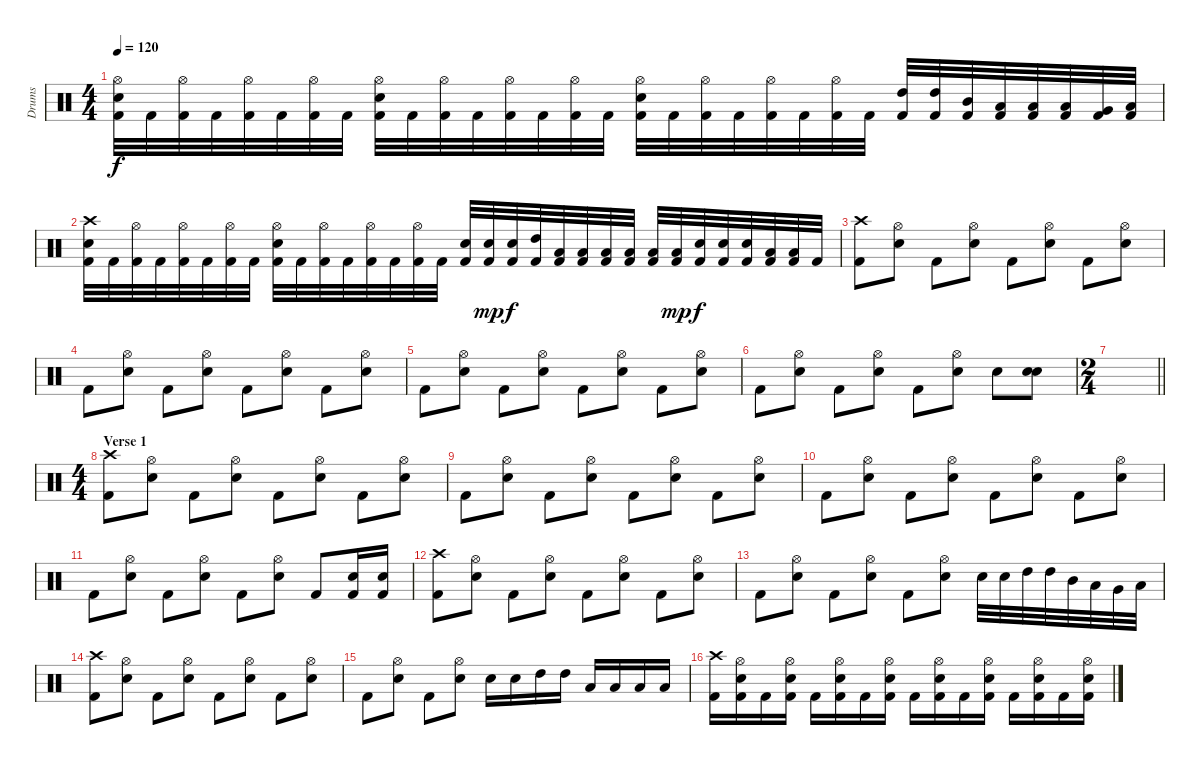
\track ("Drums" "Drums") {instrument percussion}
\staff {score}
\articulation defaults
\ts (4 4)
\tempo 120
\clef neutral
\ks c
("Hi-Hat (open)" "Electric Snare (hit)" "Kick (hit) 2").32{dy f} "Kick (hit) 2".32 ("Hi-Hat (open)" "Kick (hit) 2").32 "Kick (hit) 2".32 ("Hi-Hat (open)" "Kick (hit) 2").32 "Kick (hit) 2".32 ("Hi-Hat (open)" "Kick (hit) 2").32 "Kick (hit) 2".32 ("Hi-Hat (open)" "Electric Snare (hit)" "Kick (hit) 2").32 "Kick (hit) 2".32 ("Hi-Hat (open)" "Kick (hit) 2").32 "Kick (hit) 2".32 ("Hi-Hat (open)" "Kick (hit) 2").32 "Kick (hit) 2".32 ("Hi-Hat (open)" "Kick (hit) 2").32 "Kick (hit) 2".32 ("Hi-Hat (open)" "Electric Snare (hit)" "Kick (hit) 2").32 "Kick (hit) 2".32 ("Hi-Hat (open)" "Kick (hit) 2").32 "Kick (hit) 2".32 ("Hi-Hat (open)" "Kick (hit) 2").32 "Kick (hit) 2".32 ("Hi-Hat (open)" "Kick (hit) 2").32 "Kick (hit) 2".32 ("High Tom (hit)" "Kick (hit) 2").32 ("High Tom (hit)" "Kick (hit) 2").32 ("Mid Tom (hit)" "Kick (hit) 2").32 ("Low Tom (hit)" "Kick (hit) 2").32 ("Low Tom (hit)" "Kick (hit) 2").32 ("Low Tom (hit)" "Kick (hit) 2").32 ("Very Low Tom (hit)" "Kick (hit) 2").32 ("Low Floor Tom (hit)" "Kick (hit) 2").32 |
("Crash high (hit)" "Electric Snare (hit)" "Kick (hit) 2").32 "Kick (hit) 2".32 ("Hi-Hat (open)" "Kick (hit) 2").32 "Kick (hit) 2".32 ("Hi-Hat (open)" "Kick (hit) 2").32 "Kick (hit) 2".32 ("Hi-Hat (open)" "Kick (hit) 2").32 "Kick (hit) 2".32 ("Hi-Hat (open)" "Electric Snare (hit)" "Kick (hit) 2").32 "Kick (hit) 2".32 ("Hi-Hat (open)" "Kick (hit) 2").32 "Kick (hit) 2".32 ("Hi-Hat (open)" "Kick (hit) 2").32 "Kick (hit) 2".32 ("Hi-Hat (open)" "Kick (hit) 2").32 "Kick (hit) 2".32 ("Electric Snare (hit)" "Kick (hit) 2").32 ("Electric Snare (hit)" "Kick (hit) 2").32{dy mp} ("Electric Snare (hit)" "Kick (hit) 2").32{dy f} ("High Tom (hit)" "Kick (hit) 2").32 ("Low Tom (hit)" "Kick (hit) 2").32 ("Low Tom (hit)" "Kick (hit) 2").32 ("Low Floor Tom (hit)" "Kick (hit) 2").32 ("Low Floor Tom (hit)" "Kick (hit) 2").32 ("Low Tom (hit)" "Kick (hit) 2").32 ("Low Tom (hit)" "Kick (hit) 2").32{dy mp} ("Electric Snare (hit)" "Kick (hit) 2").32{dy f} ("Electric Snare (hit)" "Kick (hit) 2").32 ("Electric Snare (hit)" "Kick (hit) 2").32 ("Low Floor Tom (hit)" "Kick (hit) 2").32 ("Low Floor Tom (hit)" "Kick (hit) 2").32 "Kick (hit) 2".32 |
("Crash high (hit)" "Kick (hit) 2").8 ("Hi-Hat (open)" "Electric Snare (hit)").8 "Kick (hit) 2".8 ("Hi-Hat (open)" "Electric Snare (hit)").8 "Kick (hit) 2".8 ("Hi-Hat (open)" "Electric Snare (hit)").8 "Kick (hit) 2".8 ("Hi-Hat (open)" "Electric Snare (hit)").8 |
"Kick (hit) 2".8 ("Hi-Hat (open)" "Electric Snare (hit)").8 "Kick (hit) 2".8 ("Hi-Hat (open)" "Electric Snare (hit)").8 "Kick (hit) 2".8 ("Hi-Hat (open)" "Electric Snare (hit)").8 "Kick (hit) 2".8 ("Hi-Hat (open)" "Electric Snare (hit)").8 |
"Kick (hit) 2".8 ("Hi-Hat (open)" "Electric Snare (hit)").8 "Kick (hit) 2".8 ("Hi-Hat (open)" "Electric Snare (hit)").8 "Kick (hit) 2".8 ("Hi-Hat (open)" "Electric Snare (hit)").8 "Kick (hit) 2".8 ("Hi-Hat (open)" "Electric Snare (hit)").8 |
"Kick (hit) 2".8 ("Hi-Hat (open)" "Electric Snare (hit)").8 "Kick (hit) 2".8 ("Hi-Hat (open)" "Electric Snare (hit)").8 "Kick (hit) 2".8 ("Hi-Hat (open)" "Electric Snare (hit)").8 "Electric Snare (hit)".8 ("Electric Snare (hit)" "Electric Snare (hit)").8 |
\ts (2 4)
\barLineRight lightlight
|
\ts (4 4)
\section ("" "Verse 1")
("Crash high (hit)" "Kick (hit) 2").8 ("Hi-Hat (open)" "Electric Snare (hit)").8 "Kick (hit) 2".8 ("Hi-Hat (open)" "Electric Snare (hit)").8 "Kick (hit) 2".8 ("Hi-Hat (open)" "Electric Snare (hit)").8 "Kick (hit) 2".8 ("Hi-Hat (open)" "Electric Snare (hit)").8 |
"Kick (hit) 2".8 ("Hi-Hat (open)" "Electric Snare (hit)").8 "Kick (hit) 2".8 ("Hi-Hat (open)" "Electric Snare (hit)").8 "Kick (hit) 2".8 ("Hi-Hat (open)" "Electric Snare (hit)").8 "Kick (hit) 2".8 ("Hi-Hat (open)" "Electric Snare (hit)").8 |
"Kick (hit) 2".8 ("Hi-Hat (open)" "Electric Snare (hit)").8 "Kick (hit) 2".8 ("Hi-Hat (open)" "Electric Snare (hit)").8 "Kick (hit) 2".8 ("Hi-Hat (open)" "Electric Snare (hit)").8 "Kick (hit) 2".8 ("Hi-Hat (open)" "Electric Snare (hit)").8 |
"Kick (hit) 2".8 ("Hi-Hat (open)" "Electric Snare (hit)").8 "Kick (hit) 2".8 ("Hi-Hat (open)" "Electric Snare (hit)").8 "Kick (hit) 2".8 ("Hi-Hat (open)" "Electric Snare (hit)").8 "Kick (hit) 2".8 ("Electric Snare (hit)" "Kick (hit) 2").16 ("Electric Snare (hit)" "Kick (hit) 2").16 |
("Crash high (hit)" "Kick (hit) 2").8 ("Hi-Hat (open)" "Electric Snare (hit)").8 "Kick (hit) 2".8 ("Hi-Hat (open)" "Electric Snare (hit)").8 "Kick (hit) 2".8 ("Hi-Hat (open)" "Electric Snare (hit)").8 "Kick (hit) 2".8 ("Hi-Hat (open)" "Electric Snare (hit)").8 |
"Kick (hit) 2".8 ("Hi-Hat (open)" "Electric Snare (hit)").8 "Kick (hit) 2".8 ("Hi-Hat (open)" "Electric Snare (hit)").8 "Kick (hit) 2".8 ("Hi-Hat (open)" "Electric Snare (hit)").8 "Electric Snare (hit)".32 "Electric Snare (hit)".32 "High Tom (hit)".32 "High Tom (hit)".32 "Mid Tom (hit)".32 "Low Tom (hit)".32 "Very Low Tom (hit)".32 "Low Floor Tom (hit)".32 |
("Crash high (hit)" "Kick (hit) 2").8 ("Hi-Hat (open)" "Electric Snare (hit)").8 "Kick (hit) 2".8 ("Hi-Hat (open)" "Electric Snare (hit)").8 "Kick (hit) 2".8 ("Hi-Hat (open)" "Electric Snare (hit)").8 "Kick (hit) 2".8 ("Hi-Hat (open)" "Electric Snare (hit)").8 |
"Kick (hit) 2".8 ("Hi-Hat (open)" "Electric Snare (hit)").8 "Kick (hit) 2".8 ("Hi-Hat (open)" "Electric Snare (hit)").8 "Electric Snare (hit)".16 "Electric Snare (hit)".16 "High Tom (hit)".16 "High Tom (hit)".16 "Low Tom (hit)".16 "Low Tom (hit)".16 "Low Floor Tom (hit)".16 "Low Floor Tom (hit)".16 |
("Crash high (hit)" "Kick (hit) 2").16 ("Hi-Hat (open)" "Electric Snare (hit)" "Kick (hit) 2").16 "Kick (hit) 2".16 ("Hi-Hat (open)" "Electric Snare (hit)" "Kick (hit) 2").16 "Kick (hit) 2".16 ("Hi-Hat (open)" "Electric Snare (hit)" "Kick (hit) 2").16 "Kick (hit) 2".16 ("Hi-Hat (open)" "Electric Snare (hit)" "Kick (hit) 2").16 "Kick (hit) 2".16 ("Hi-Hat (open)" "Electric Snare (hit)" "Kick (hit) 2").16 "Kick (hit) 2".16 ("Hi-Hat (open)" "Electric Snare (hit)" "Kick (hit) 2").16 "Kick (hit) 2".16 ("Hi-Hat (open)" "Electric Snare (hit)" "Kick (hit) 2").16 "Kick (hit) 2".16 ("Hi-Hat (open)" "Electric Snare (hit)" "Kick (hit) 2").16
